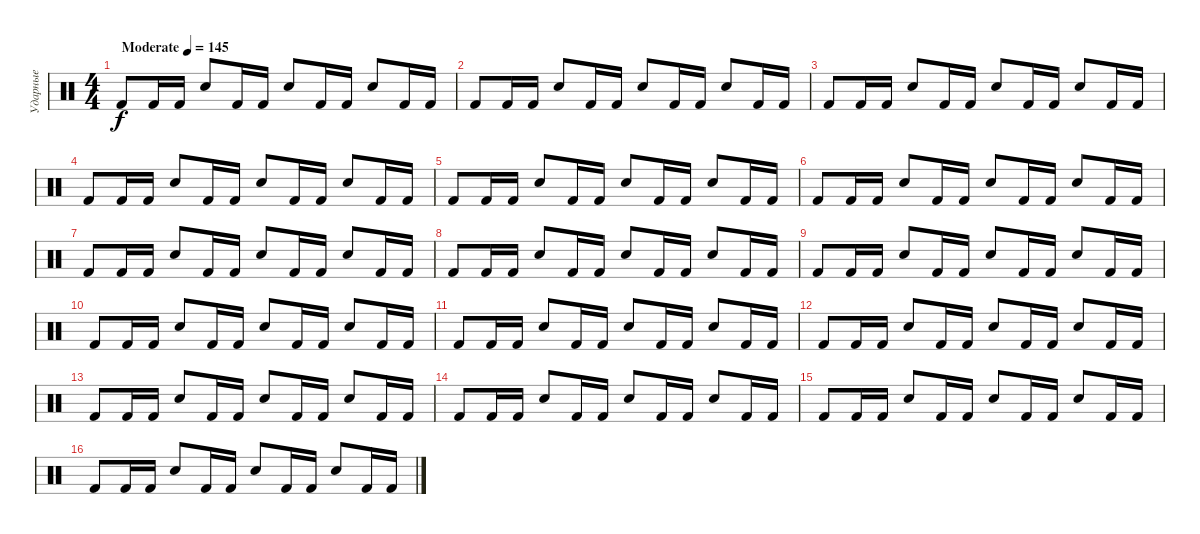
\track ("Ударные" "Ударные") {instrument percussion}
\staff {score}
\articulation defaults
\ts (4 4)
\tempo (145 "Moderate")
\clef neutral
\ks c "Kick (hit) 2".8{dy f} "Kick (hit) 2".16 "Kick (hit) 2".16 "Electric Snare (hit)".8 "Kick (hit) 2".16 "Kick (hit) 2".16 "Electric Snare (hit)".8 "Kick (hit) 2".16 "Kick (hit) 2".16 "Electric Snare (hit)".8 "Kick (hit) 2".16 "Kick (hit) 2".16
|
"Kick (hit) 2".8 "Kick (hit) 2".16 "Kick (hit) 2".16 "Electric Snare (hit)".8 "Kick (hit) 2".16 "Kick (hit) 2".16 "Electric Snare (hit)".8 "Kick (hit) 2".16 "Kick (hit) 2".16 "Electric Snare (hit)".8 "Kick (hit) 2".16 "Kick (hit) 2".16 |
"Kick (hit) 2".8 "Kick (hit) 2".16 "Kick (hit) 2".16 "Electric Snare (hit)".8 "Kick (hit) 2".16 "Kick (hit) 2".16 "Electric Snare (hit)".8 "Kick (hit) 2".16 "Kick (hit) 2".16 "Electric Snare (hit)".8 "Kick (hit) 2".16 "Kick (hit) 2".16 |
"Kick (hit) 2".8 "Kick (hit) 2".16 "Kick (hit) 2".16 "Electric Snare (hit)".8 "Kick (hit) 2".16 "Kick (hit) 2".16 "Electric Snare (hit)".8 "Kick (hit) 2".16 "Kick (hit) 2".16 "Electric Snare (hit)".8 "Kick (hit) 2".16 "Kick (hit) 2".16 |
"Kick (hit) 2".8 "Kick (hit) 2".16 "Kick (hit) 2".16 "Electric Snare (hit)".8 "Kick (hit) 2".16 "Kick (hit) 2".16 "Electric Snare (hit)".8 "Kick (hit) 2".16 "Kick (hit) 2".16 "Electric Snare (hit)".8 "Kick (hit) 2".16 "Kick (hit) 2".16 |
"Kick (hit) 2".8 "Kick (hit) 2".16 "Kick (hit) 2".16 "Electric Snare (hit)".8 "Kick (hit) 2".16 "Kick (hit) 2".16 "Electric Snare (hit)".8 "Kick (hit) 2".16 "Kick (hit) 2".16 "Electric Snare (hit)".8 "Kick (hit) 2".16 "Kick (hit) 2".16 |
"Kick (hit) 2".8 "Kick (hit) 2".16 "Kick (hit) 2".16 "Electric Snare (hit)".8 "Kick (hit) 2".16 "Kick (hit) 2".16 "Electric Snare (hit)".8 "Kick (hit) 2".16 "Kick (hit) 2".16 "Electric Snare (hit)".8 "Kick (hit) 2".16 "Kick (hit) 2".16 |
"Kick (hit) 2".8 "Kick (hit) 2".16 "Kick (hit) 2".16 "Electric Snare (hit)".8 "Kick (hit) 2".16 "Kick (hit) 2".16 "Electric Snare (hit)".8 "Kick (hit) 2".16 "Kick (hit) 2".16 "Electric Snare (hit)".8 "Kick (hit) 2".16 "Kick (hit) 2".16 |
"Kick (hit) 2".8 "Kick (hit) 2".16 "Kick (hit) 2".16 "Electric Snare (hit)".8 "Kick (hit) 2".16 "Kick (hit) 2".16 "Electric Snare (hit)".8 "Kick (hit) 2".16 "Kick (hit) 2".16 "Electric Snare (hit)".8 "Kick (hit) 2".16 "Kick (hit) 2".16 |
"Kick (hit) 2".8 "Kick (hit) 2".16 "Kick (hit) 2".16 "Electric Snare (hit)".8 "Kick (hit) 2".16 "Kick (hit) 2".16 "Electric Snare (hit)".8 "Kick (hit) 2".16 "Kick (hit) 2".16 "Electric Snare (hit)".8 "Kick (hit) 2".16 "Kick (hit) 2".16 |
"Kick (hit) 2".8 "Kick (hit) 2".16 "Kick (hit) 2".16 "Electric Snare (hit)".8 "Kick (hit) 2".16 "Kick (hit) 2".16 "Electric Snare (hit)".8 "Kick (hit) 2".16 "Kick (hit) 2".16 "Electric Snare (hit)".8 "Kick (hit) 2".16 "Kick (hit) 2".16 |
"Kick (hit) 2".8 "Kick (hit) 2".16 "Kick (hit) 2".16 "Electric Snare (hit)".8 "Kick (hit) 2".16 "Kick (hit) 2".16 "Electric Snare (hit)".8 "Kick (hit) 2".16 "Kick (hit) 2".16 "Electric Snare (hit)".8 "Kick (hit) 2".16 "Kick (hit) 2".16 |
"Kick (hit) 2".8 "Kick (hit) 2".16 "Kick (hit) 2".16 "Electric Snare (hit)".8 "Kick (hit) 2".16 "Kick (hit) 2".16 "Electric Snare (hit)".8 "Kick (hit) 2".16 "Kick (hit) 2".16 "Electric Snare (hit)".8 "Kick (hit) 2".16 "Kick (hit) 2".16 |
"Kick (hit) 2".8 "Kick (hit) 2".16 "Kick (hit) 2".16 "Electric Snare (hit)".8 "Kick (hit) 2".16 "Kick (hit) 2".16 "Electric Snare (hit)".8 "Kick (hit) 2".16 "Kick (hit) 2".16 "Electric Snare (hit)".8 "Kick (hit) 2".16 "Kick (hit) 2".16 |
"Kick (hit) 2".8 "Kick (hit) 2".16 "Kick (hit) 2".16 "Electric Snare (hit)".8 "Kick (hit) 2".16 "Kick (hit) 2".16 "Electric Snare (hit)".8 "Kick (hit) 2".16 "Kick (hit) 2".16 "Electric Snare (hit)".8 "Kick (hit) 2".16 "Kick (hit) 2".16 |
"Kick (hit) 2".8 "Kick (hit) 2".16 "Kick (hit) 2".16 "Electric Snare (hit)".8 "Kick (hit) 2".16 "Kick (hit) 2".16 "Electric Snare (hit)".8 "Kick (hit) 2".16 "Kick (hit) 2".16 "Electric Snare (hit)".8 "Kick (hit) 2".16 "Kick (hit) 2".16
